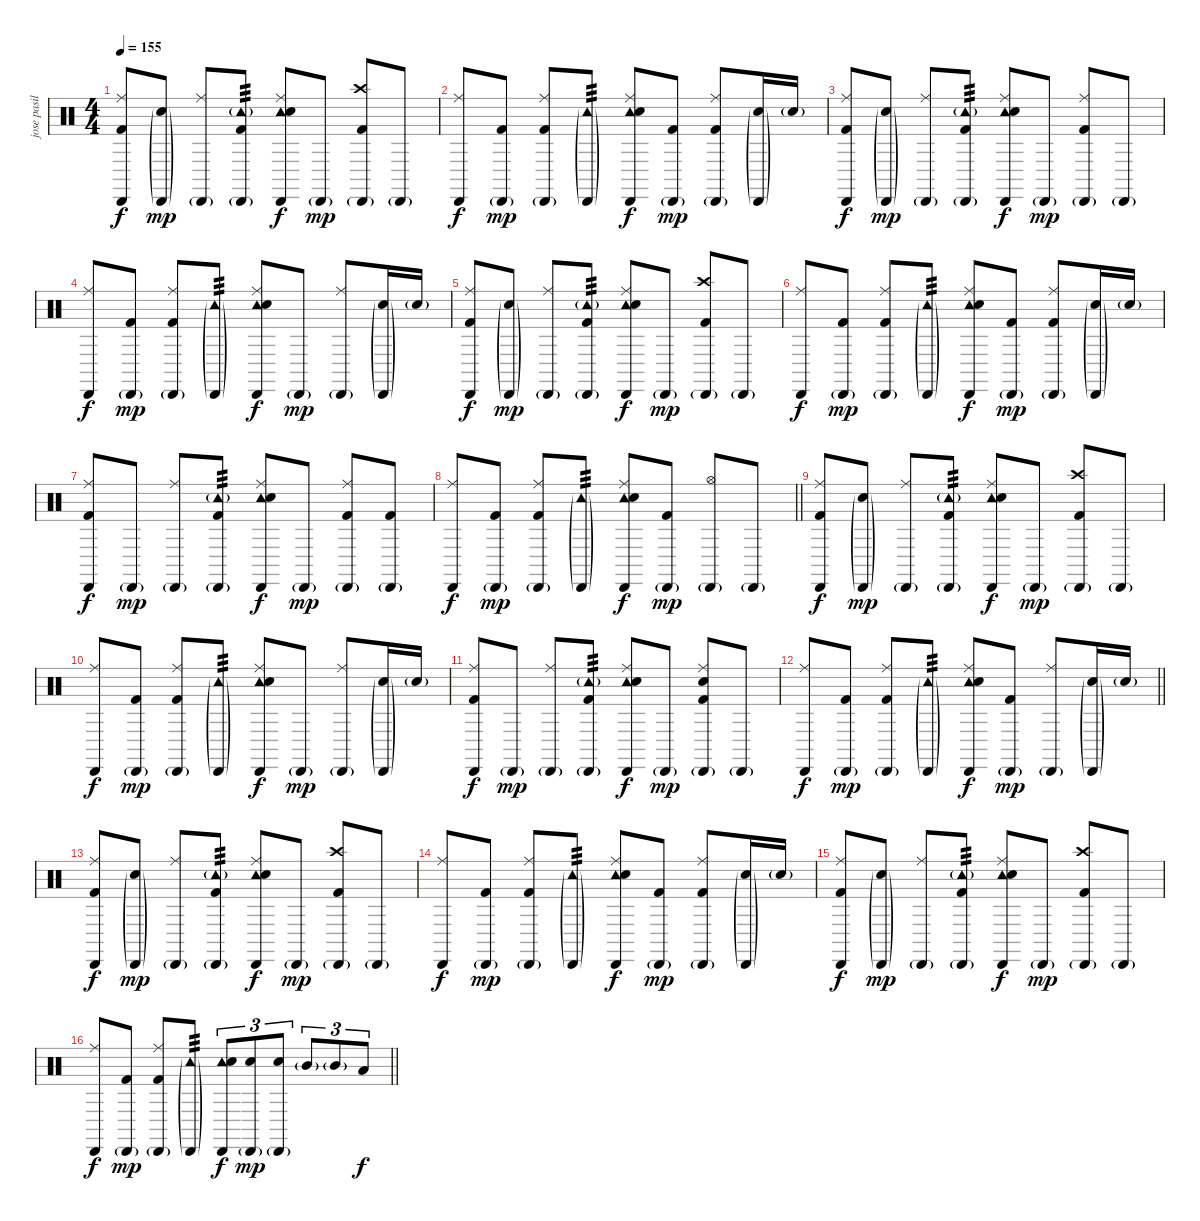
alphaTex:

\track ("jose pasillas" "jose pasil") {instrument percussion}
\staff {score}
\articulation defaults
\ts (4 4)
\tempo 155
\clef neutral
\ks c
("Cabasa (hit)" "Ride (middle)" "Kick (hit) 2").8{dy f} ("Cabasa (hit)"{g} "Snare (hit) 2"{g}).8{dy mp} ("Cabasa (hit)"{g} "Ride (middle)").8 ("Cabasa (hit)"{g} "Tambourine (hit)"{g} "Kick (hit) 2").8{tp 3} ("Cabasa (hit)" "Tambourine (hit)" "Ride (middle)" "Snare (hit) 2").8{dy f} "Cabasa (hit)"{g}.8{dy mp} ("Cabasa (hit)"{g} "Crash high (hit)" "Kick (hit) 2").8 "Cabasa (hit)"{g}.8 |
("Cabasa (hit)" "Ride (middle)").8{dy f} ("Cabasa (hit)"{g} "Kick (hit) 2").8{dy mp} ("Cabasa (hit)"{g} "Ride (middle)" "Kick (hit) 2").8 ("Cabasa (hit)"{g} "Tambourine (hit)"{g}).8{tp 3} ("Cabasa (hit)" "Tambourine (hit)" "Ride (middle)" "Snare (hit) 2").8{dy f} ("Cabasa (hit)"{g} "Kick (hit) 2").8{dy mp} ("Cabasa (hit)"{g} "Ride (middle)" "Kick (hit) 2").8 ("Cabasa (hit)"{g} "Snare (hit) 2"{g}).16 "Snare (hit) 2"{g}.16 |
("Cabasa (hit)" "Ride (middle)" "Kick (hit) 2").8{dy f} ("Cabasa (hit)"{g} "Snare (hit) 2"{g}).8{dy mp} ("Cabasa (hit)"{g} "Ride (middle)").8 ("Cabasa (hit)"{g} "Tambourine (hit)"{g} "Kick (hit) 2").8{tp 3} ("Cabasa (hit)" "Tambourine (hit)" "Ride (middle)" "Snare (hit) 2").8{dy f} "Cabasa (hit)"{g}.8{dy mp} ("Cabasa (hit)"{g} "Ride (middle)" "Kick (hit) 2").8 "Cabasa (hit)"{g}.8 |
("Cabasa (hit)" "Ride (middle)").8{dy f} ("Cabasa (hit)"{g} "Kick (hit) 2").8{dy mp} ("Cabasa (hit)"{g} "Ride (middle)" "Kick (hit) 2").8 ("Cabasa (hit)"{g} "Tambourine (hit)"{g}).8{tp 3} ("Cabasa (hit)" "Tambourine (hit)" "Ride (middle)" "Snare (hit) 2").8{dy f} "Cabasa (hit)"{g}.8{dy mp} ("Cabasa (hit)"{g} "Ride (middle)").8 ("Cabasa (hit)"{g} "Snare (hit) 2"{g}).16 "Snare (hit) 2"{g}.16 |
("Cabasa (hit)" "Ride (middle)" "Kick (hit) 2").8{dy f} ("Cabasa (hit)"{g} "Snare (hit) 2"{g}).8{dy mp} ("Cabasa (hit)"{g} "Ride (middle)").8 ("Cabasa (hit)"{g} "Tambourine (hit)"{g} "Kick (hit) 2").8{tp 3} ("Cabasa (hit)" "Tambourine (hit)" "Ride (middle)" "Snare (hit) 2").8{dy f} "Cabasa (hit)"{g}.8{dy mp} ("Cabasa (hit)"{g} "Crash high (hit)" "Kick (hit) 2").8 "Cabasa (hit)"{g}.8 |
("Cabasa (hit)" "Ride (middle)").8{dy f} ("Cabasa (hit)"{g} "Kick (hit) 2").8{dy mp} ("Cabasa (hit)"{g} "Ride (middle)" "Kick (hit) 2").8 ("Cabasa (hit)"{g} "Tambourine (hit)"{g}).8{tp 3} ("Cabasa (hit)" "Tambourine (hit)" "Ride (middle)" "Snare (hit) 2").8{dy f} ("Cabasa (hit)"{g} "Kick (hit) 2").8{dy mp} ("Cabasa (hit)"{g} "Ride (middle)" "Kick (hit) 2").8 ("Cabasa (hit)"{g} "Snare (hit) 2"{g}).16 "Snare (hit) 2"{g}.16 |
("Cabasa (hit)" "Ride (middle)" "Kick (hit) 2").8{dy f} "Cabasa (hit)"{g}.8{dy mp} ("Cabasa (hit)"{g} "Ride (middle)").8 ("Cabasa (hit)"{g} "Tambourine (hit)"{g} "Kick (hit) 2").8{tp 3} ("Cabasa (hit)" "Tambourine (hit)" "Ride (middle)" "Snare (hit) 2").8{dy f} "Cabasa (hit)"{g}.8{dy mp} ("Cabasa (hit)"{g} "Ride (middle)" "Kick (hit) 2").8 ("Cabasa (hit)"{g} "Kick (hit) 2").8 |
\barLineRight lightlight
("Cabasa (hit)" "Ride (middle)").8{dy f} ("Cabasa (hit)"{g} "Kick (hit) 2").8{dy mp} ("Cabasa (hit)"{g} "Ride (middle)" "Kick (hit) 2").8 ("Cabasa (hit)"{g} "Tambourine (hit)"{g}).8{tp 3} ("Cabasa (hit)" "Tambourine (hit)" "Ride (middle)" "Snare (hit) 2").8{dy f} ("Cabasa (hit)"{g} "Kick (hit) 2").8{dy mp} ("Cabasa (hit)"{g} "Hi-Hat (open)").8 "Cabasa (hit)"{g}.8 |
("Cabasa (hit)" "Ride (middle)" "Kick (hit) 2").8{dy f} ("Cabasa (hit)"{g} "Snare (hit) 2"{g}).8{dy mp} ("Cabasa (hit)"{g} "Ride (middle)").8 ("Cabasa (hit)"{g} "Tambourine (hit)"{g} "Kick (hit) 2").8{tp 3} ("Cabasa (hit)" "Tambourine (hit)" "Ride (middle)" "Snare (hit) 2").8{dy f} "Cabasa (hit)"{g}.8{dy mp} ("Cabasa (hit)"{g} "Crash high (hit)" "Kick (hit) 2").8 "Cabasa (hit)"{g}.8 |
("Cabasa (hit)" "Ride (middle)").8{dy f} ("Cabasa (hit)"{g} "Kick (hit) 2").8{dy mp} ("Cabasa (hit)"{g} "Ride (middle)" "Kick (hit) 2").8 ("Cabasa (hit)"{g} "Tambourine (hit)"{g}).8{tp 3} ("Cabasa (hit)" "Tambourine (hit)" "Ride (middle)" "Snare (hit) 2").8{dy f} "Cabasa (hit)"{g}.8{dy mp} ("Cabasa (hit)"{g} "Ride (middle)").8 ("Cabasa (hit)"{g} "Snare (hit) 2"{g}).16 "Snare (hit) 2"{g}.16 |
("Cabasa (hit)" "Ride (middle)" "Kick (hit) 2").8{dy f} "Cabasa (hit)"{g}.8{dy mp} ("Cabasa (hit)"{g} "Ride (middle)").8 ("Cabasa (hit)"{g} "Tambourine (hit)"{g} "Kick (hit) 2").8{tp 3} ("Cabasa (hit)" "Tambourine (hit)" "Ride (middle)" "Snare (hit) 2").8{dy f} "Cabasa (hit)"{g}.8{dy mp} ("Cabasa (hit)"{g} "Ride (middle)" "Snare (hit) 2" "Kick (hit) 2").8 "Cabasa (hit)"{g}.8 |
\barLineRight lightlight
("Cabasa (hit)" "Ride (middle)").8{dy f} ("Cabasa (hit)"{g} "Kick (hit) 2").8{dy mp} ("Cabasa (hit)"{g} "Ride (middle)" "Kick (hit) 2").8 ("Cabasa (hit)"{g} "Tambourine (hit)"{g}).8{tp 3} ("Cabasa (hit)" "Tambourine (hit)" "Ride (middle)" "Snare (hit) 2").8{dy f} ("Cabasa (hit)"{g} "Kick (hit) 2").8{dy mp} ("Cabasa (hit)"{g} "Ride (middle)").8 ("Cabasa (hit)"{g} "Snare (hit) 2"{g}).16 "Snare (hit) 2"{g}.16 |
("Cabasa (hit)" "Ride (middle)" "Kick (hit) 2").8{dy f} ("Cabasa (hit)"{g} "Snare (hit) 2"{g}).8{dy mp} ("Cabasa (hit)"{g} "Ride (middle)").8 ("Cabasa (hit)"{g} "Tambourine (hit)"{g} "Kick (hit) 2").8{tp 3} ("Cabasa (hit)" "Tambourine (hit)" "Ride (middle)" "Snare (hit) 2").8{dy f} "Cabasa (hit)"{g}.8{dy mp} ("Cabasa (hit)"{g} "Crash high (hit)" "Kick (hit) 2").8 "Cabasa (hit)"{g}.8 |
("Cabasa (hit)" "Ride (middle)").8{dy f} ("Cabasa (hit)"{g} "Kick (hit) 2").8{dy mp} ("Cabasa (hit)"{g} "Ride (middle)" "Kick (hit) 2").8 ("Cabasa (hit)"{g} "Tambourine (hit)"{g}).8{tp 3} ("Cabasa (hit)" "Tambourine (hit)" "Ride (middle)" "Snare (hit) 2").8{dy f} ("Cabasa (hit)"{g} "Kick (hit) 2").8{dy mp} ("Cabasa (hit)"{g} "Ride (middle)" "Kick (hit) 2").8 ("Cabasa (hit)"{g} "Snare (hit) 2"{g}).16 "Snare (hit) 2"{g}.16 |
("Cabasa (hit)" "Ride (middle)" "Kick (hit) 2").8{dy f} ("Cabasa (hit)"{g} "Snare (hit) 2"{g}).8{dy mp} ("Cabasa (hit)"{g} "Ride (middle)").8 ("Cabasa (hit)"{g} "Tambourine (hit)"{g} "Kick (hit) 2").8{tp 3} ("Cabasa (hit)" "Tambourine (hit)" "Ride (middle)" "Snare (hit) 2").8{dy f} "Cabasa (hit)"{g}.8{dy mp} ("Cabasa (hit)"{g} "Crash high (hit)" "Kick (hit) 2").8 "Cabasa (hit)"{g}.8 |
\barLineRight lightlight
("Cabasa (hit)" "Ride (middle)").8{dy f} ("Cabasa (hit)"{g} "Kick (hit) 2").8{dy mp} ("Cabasa (hit)"{g} "Ride (middle)" "Kick (hit) 2").8 ("Cabasa (hit)"{g} "Tambourine (hit)"{g}).8{tp 3} ("Cabasa (hit)" "Tambourine (hit)" "Snare (hit) 2").8{tu (3 2) dy f} ("Cabasa (hit)"{g} "Snare (hit) 2").8{tu (3 2) dy mp} ("Cabasa (hit)"{g} "Snare (hit) 2").8{tu (3 2)} "Mid Tom (hit)"{g}.8{tu (3 2)} "Mid Tom (hit)"{g}.8{tu (3 2)} "Low Tom (hit)".8{tu (3 2) dy f}
